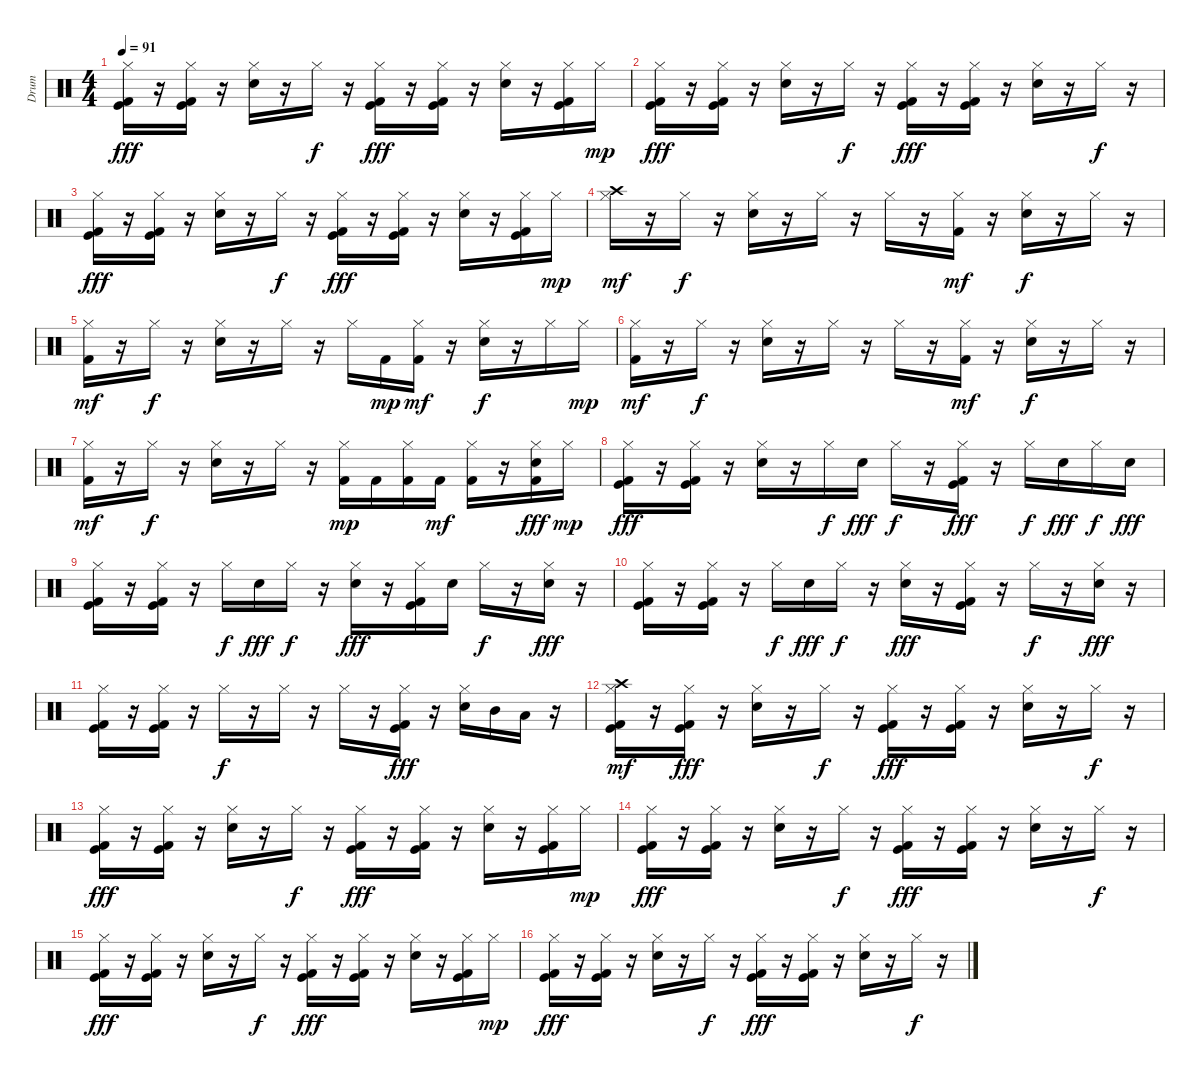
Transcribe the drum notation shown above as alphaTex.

\track ("Drum" "Drum") {instrument percussion}
\staff {score}
\articulation defaults
\ts (4 4)
\tempo 91
\clef neutral
\ks c
("Kick (hit)" "Kick (hit) 2" "Hi-Hat (closed)").16{dy fff} r.16 ("Kick (hit)" "Kick (hit) 2" "Hi-Hat (closed)").16 r.16 ("Hi-Hat (closed)" "Electric Snare (hit)").16 r.16 "Hi-Hat (closed)".16{dy f} r.16 ("Kick (hit)" "Kick (hit) 2" "Hi-Hat (closed)").16{dy fff} r.16 ("Kick (hit)" "Kick (hit) 2" "Hi-Hat (closed)").16 r.16 ("Hi-Hat (closed)" "Electric Snare (hit)").16 r.16 ("Kick (hit)" "Kick (hit) 2" "Hi-Hat (closed)").16 "Hi-Hat (closed)".16{dy mp} |
("Kick (hit)" "Kick (hit) 2" "Hi-Hat (closed)").16{dy fff} r.16 ("Kick (hit)" "Kick (hit) 2" "Hi-Hat (closed)").16 r.16 ("Hi-Hat (closed)" "Electric Snare (hit)").16 r.16 "Hi-Hat (closed)".16{dy f} r.16 ("Kick (hit)" "Kick (hit) 2" "Hi-Hat (closed)").16{dy fff} r.16 ("Kick (hit)" "Kick (hit) 2" "Hi-Hat (closed)").16 r.16 ("Hi-Hat (closed)" "Electric Snare (hit)").16 r.16 "Hi-Hat (closed)".16{dy f} r.16 |
("Kick (hit)" "Kick (hit) 2" "Hi-Hat (closed)").16{dy fff} r.16 ("Kick (hit)" "Kick (hit) 2" "Hi-Hat (closed)").16 r.16 ("Hi-Hat (closed)" "Electric Snare (hit)").16 r.16 "Hi-Hat (closed)".16{dy f} r.16 ("Kick (hit)" "Kick (hit) 2" "Hi-Hat (closed)").16{dy fff} r.16 ("Kick (hit)" "Kick (hit) 2" "Hi-Hat (closed)").16 r.16 ("Hi-Hat (closed)" "Electric Snare (hit)").16 r.16 ("Kick (hit)" "Kick (hit) 2" "Hi-Hat (closed)").16 "Hi-Hat (closed)".16{dy mp} |
("Crash high (hit)" "Hi-Hat (closed)").16{dy mf} r.16 "Hi-Hat (closed)".16{dy f} r.16 ("Hi-Hat (closed)" "Hand Clap (hit)").16 r.16 "Hi-Hat (closed)".16 r.16 "Hi-Hat (closed)".16 r.16 ("Hi-Hat (closed)" "Kick (hit) 2").16{dy mf} r.16 ("Hi-Hat (closed)" "Hand Clap (hit)").16{dy f} r.16 "Hi-Hat (closed)".16 r.16 |
("Hi-Hat (closed)" "Kick (hit) 2").16{dy mf} r.16 "Hi-Hat (closed)".16{dy f} r.16 ("Hi-Hat (closed)" "Hand Clap (hit)").16 r.16 "Hi-Hat (closed)".16 r.16 "Hi-Hat (closed)".16 "Kick (hit) 2".16{dy mp} ("Hi-Hat (closed)" "Kick (hit) 2").16{dy mf} r.16 ("Hi-Hat (closed)" "Hand Clap (hit)").16{dy f} r.16 "Hi-Hat (closed)".16 "Hi-Hat (closed)".16{dy mp} |
("Kick (hit) 2" "Hi-Hat (closed)").16{dy mf} r.16 "Hi-Hat (closed)".16{dy f} r.16 ("Hi-Hat (closed)" "Hand Clap (hit)").16 r.16 "Hi-Hat (closed)".16 r.16 "Hi-Hat (closed)".16 r.16 ("Hi-Hat (closed)" "Kick (hit) 2").16{dy mf} r.16 ("Hi-Hat (closed)" "Hand Clap (hit)").16{dy f} r.16 "Hi-Hat (closed)".16 r.16 |
("Hi-Hat (closed)" "Kick (hit) 2").16{dy mf} r.16 "Hi-Hat (closed)".16{dy f} r.16 ("Hi-Hat (closed)" "Hand Clap (hit)").16 r.16 "Hi-Hat (closed)".16 r.16 ("Hi-Hat (closed)" "Kick (hit) 2").16{dy mp} "Kick (hit) 2".16 ("Hi-Hat (closed)" "Kick (hit) 2").16 "Kick (hit) 2".16{dy mf} ("Hi-Hat (closed)" "Kick (hit) 2").16 r.16 ("Hi-Hat (closed)" "Kick (hit) 2" "Electric Snare (hit)").16{dy fff} "Hi-Hat (closed)".16{dy mp} |
("Hi-Hat (closed)" "Kick (hit)" "Kick (hit) 2").16{dy fff} r.16 ("Hi-Hat (closed)" "Kick (hit)" "Kick (hit) 2").16 r.16 ("Hi-Hat (closed)" "Electric Snare (hit)").16 r.16 "Hi-Hat (closed)".16{dy f} "Electric Snare (hit)".16{dy fff} "Hi-Hat (closed)".16{dy f} r.16 ("Hi-Hat (closed)" "Kick (hit)" "Kick (hit) 2").16{dy fff} r.16 "Hi-Hat (closed)".16{dy f} "Electric Snare (hit)".16{dy fff} "Hi-Hat (closed)".16{dy f} "Electric Snare (hit)".16{dy fff} |
("Hi-Hat (closed)" "Kick (hit)" "Kick (hit) 2").16 r.16 ("Hi-Hat (closed)" "Kick (hit)" "Kick (hit) 2").16 r.16 "Hi-Hat (closed)".16{dy f} "Electric Snare (hit)".16{dy fff} "Hi-Hat (closed)".16{dy f} r.16 ("Hi-Hat (closed)" "Electric Snare (hit)").16{dy fff} r.16 ("Hi-Hat (closed)" "Kick (hit)" "Kick (hit) 2").16 "Electric Snare (hit)".16 "Hi-Hat (closed)".16{dy f} r.16 ("Hi-Hat (closed)" "Electric Snare (hit)").16{dy fff} r.16 |
("Hi-Hat (closed)" "Kick (hit)" "Kick (hit) 2").16 r.16 ("Hi-Hat (closed)" "Kick (hit)" "Kick (hit) 2").16 r.16 "Hi-Hat (closed)".16{dy f} "Electric Snare (hit)".16{dy fff} "Hi-Hat (closed)".16{dy f} r.16 ("Hi-Hat (closed)" "Electric Snare (hit)").16{dy fff} r.16 ("Hi-Hat (closed)" "Kick (hit)" "Kick (hit) 2").16 r.16 "Hi-Hat (closed)".16{dy f} r.16 ("Hi-Hat (closed)" "Electric Snare (hit)").16{dy fff} r.16 |
("Hi-Hat (closed)" "Kick (hit)" "Kick (hit) 2").16 r.16 ("Hi-Hat (closed)" "Kick (hit)" "Kick (hit) 2").16 r.16 "Hi-Hat (closed)".16{dy f} r.16 "Hi-Hat (closed)".16 r.16 "Hi-Hat (closed)".16 r.16 ("Hi-Hat (closed)" "Kick (hit)" "Kick (hit) 2").16{dy fff} r.16 ("Hi-Hat (closed)" "Electric Snare (hit)").16 "Mid Tom (hit)".16 "Low Tom (hit)".16 r.16 |
("Hi-Hat (closed)" "Kick (hit)" "Kick (hit) 2" "Crash high (hit)").16{dy mf} r.16 ("Hi-Hat (closed)" "Kick (hit)" "Kick (hit) 2").16{dy fff} r.16 ("Hi-Hat (closed)" "Electric Snare (hit)").16 r.16 "Hi-Hat (closed)".16{dy f} r.16 ("Hi-Hat (closed)" "Kick (hit)" "Kick (hit) 2").16{dy fff} r.16 ("Hi-Hat (closed)" "Kick (hit)" "Kick (hit) 2").16 r.16 ("Hi-Hat (closed)" "Electric Snare (hit)").16 r.16 "Hi-Hat (closed)".16{dy f} r.16 |
("Hi-Hat (closed)" "Kick (hit)" "Kick (hit) 2").16{dy fff} r.16 ("Hi-Hat (closed)" "Kick (hit)" "Kick (hit) 2").16 r.16 ("Hi-Hat (closed)" "Electric Snare (hit)").16 r.16 "Hi-Hat (closed)".16{dy f} r.16 ("Hi-Hat (closed)" "Kick (hit)" "Kick (hit) 2").16{dy fff} r.16 ("Hi-Hat (closed)" "Kick (hit)" "Kick (hit) 2").16 r.16 ("Hi-Hat (closed)" "Electric Snare (hit)").16 r.16 ("Hi-Hat (closed)" "Kick (hit)" "Kick (hit) 2").16 "Hi-Hat (closed)".16{dy mp} |
("Hi-Hat (closed)" "Kick (hit)" "Kick (hit) 2").16{dy fff} r.16 ("Hi-Hat (closed)" "Kick (hit)" "Kick (hit) 2").16 r.16 ("Hi-Hat (closed)" "Electric Snare (hit)").16 r.16 "Hi-Hat (closed)".16{dy f} r.16 ("Hi-Hat (closed)" "Kick (hit)" "Kick (hit) 2").16{dy fff} r.16 ("Hi-Hat (closed)" "Kick (hit)" "Kick (hit) 2").16 r.16 ("Hi-Hat (closed)" "Electric Snare (hit)").16 r.16 "Hi-Hat (closed)".16{dy f} r.16 |
("Hi-Hat (closed)" "Kick (hit)" "Kick (hit) 2").16{dy fff} r.16 ("Hi-Hat (closed)" "Kick (hit)" "Kick (hit) 2").16 r.16 ("Hi-Hat (closed)" "Electric Snare (hit)").16 r.16 "Hi-Hat (closed)".16{dy f} r.16 ("Hi-Hat (closed)" "Kick (hit)" "Kick (hit) 2").16{dy fff} r.16 ("Hi-Hat (closed)" "Kick (hit)" "Kick (hit) 2").16 r.16 ("Hi-Hat (closed)" "Electric Snare (hit)").16 r.16 ("Hi-Hat (closed)" "Kick (hit)" "Kick (hit) 2").16 "Hi-Hat (closed)".16{dy mp} |
("Hi-Hat (closed)" "Kick (hit)" "Kick (hit) 2").16{dy fff} r.16 ("Hi-Hat (closed)" "Kick (hit)" "Kick (hit) 2").16 r.16 ("Hi-Hat (closed)" "Electric Snare (hit)").16 r.16 "Hi-Hat (closed)".16{dy f} r.16 ("Hi-Hat (closed)" "Kick (hit)" "Kick (hit) 2").16{dy fff} r.16 ("Hi-Hat (closed)" "Kick (hit)" "Kick (hit) 2").16 r.16 ("Hi-Hat (closed)" "Electric Snare (hit)").16 r.16 "Hi-Hat (closed)".16{dy f} r.16
